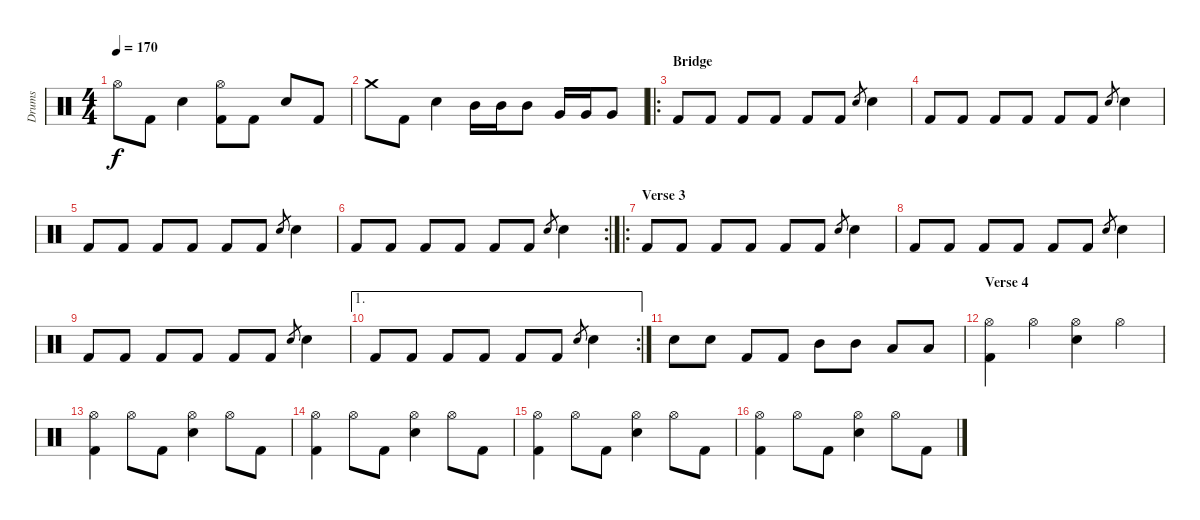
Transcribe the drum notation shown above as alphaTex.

\track ("Drums" "Drums") {instrument percussion}
\staff {score}
\articulation defaults
\ts (4 4)
\tempo 170
\clef neutral
\ks c "Hi-Hat (open)".8{dy f} "Kick (hit) 2".8 "Snare (hit) 2".4
("Hi-Hat (open)" "Kick (hit) 2").8 "Kick (hit) 2".8 "Snare (hit) 2".8 "Kick (hit) 2".8 |
"Crash medium (hit)".8 "Kick (hit) 2".8 "Snare (hit) 2".4 "Mid Tom (hit)".16 "Mid Tom (hit)".16 "Mid Tom (hit)".8 "Very Low Tom (hit)".16 "Very Low Tom (hit)".16 "Very Low Tom (hit)".8 |
\ro
\section ("" "Bridge")
"Kick (hit) 2".8 "Kick (hit) 2".8 "Kick (hit) 2".8 "Kick (hit) 2".8 "Kick (hit) 2".8 "Kick (hit) 2".8 "Snare (hit) 2".8{gr} "Snare (hit) 2".4 |
"Kick (hit) 2".8 "Kick (hit) 2".8 "Kick (hit) 2".8 "Kick (hit) 2".8 "Kick (hit) 2".8 "Kick (hit) 2".8 "Snare (hit) 2".8{gr} "Snare (hit) 2".4 |
"Kick (hit) 2".8 "Kick (hit) 2".8 "Kick (hit) 2".8 "Kick (hit) 2".8 "Kick (hit) 2".8 "Kick (hit) 2".8 "Snare (hit) 2".8{gr} "Snare (hit) 2".4 |
\rc 2 "Kick (hit) 2".8 "Kick (hit) 2".8 "Kick (hit) 2".8 "Kick (hit) 2".8 "Kick (hit) 2".8 "Kick (hit) 2".8 "Snare (hit) 2".8{gr} "Snare (hit) 2".4
|
\ro
\section ("" "Verse 3")
"Kick (hit) 2".8 "Kick (hit) 2".8 "Kick (hit) 2".8 "Kick (hit) 2".8 "Kick (hit) 2".8 "Kick (hit) 2".8 "Snare (hit) 2".8{gr} "Snare (hit) 2".4 |
"Kick (hit) 2".8 "Kick (hit) 2".8 "Kick (hit) 2".8 "Kick (hit) 2".8 "Kick (hit) 2".8 "Kick (hit) 2".8 "Snare (hit) 2".8{gr} "Snare (hit) 2".4 |
"Kick (hit) 2".8 "Kick (hit) 2".8 "Kick (hit) 2".8 "Kick (hit) 2".8 "Kick (hit) 2".8 "Kick (hit) 2".8 "Snare (hit) 2".8{gr} "Snare (hit) 2".4 |
\ae 1
\rc 2 "Kick (hit) 2".8 "Kick (hit) 2".8 "Kick (hit) 2".8 "Kick (hit) 2".8 "Kick (hit) 2".8 "Kick (hit) 2".8 "Snare (hit) 2".8{gr} "Snare (hit) 2".4
|
"Snare (hit) 2".8 "Snare (hit) 2".8 "Kick (hit) 2".8 "Kick (hit) 2".8 "Mid Tom (hit)".8 "Mid Tom (hit)".8 "Low Tom (hit)".8 "Low Tom (hit)".8 |
\section ("" "Verse 4")
("Hi-Hat (open)" "Kick (hit) 2").4 "Hi-Hat (open)".4 ("Hi-Hat (open)" "Snare (hit) 2").4 "Hi-Hat (open)".4 |
("Hi-Hat (open)" "Kick (hit) 2").4 "Hi-Hat (open)".8 "Kick (hit) 2".8 ("Hi-Hat (open)" "Snare (hit) 2").4 "Hi-Hat (open)".8 "Kick (hit) 2".8 |
("Hi-Hat (open)" "Kick (hit) 2").4 "Hi-Hat (open)".8 "Kick (hit) 2".8 ("Hi-Hat (open)" "Snare (hit) 2").4 "Hi-Hat (open)".8 "Kick (hit) 2".8 |
("Hi-Hat (open)" "Kick (hit) 2").4 "Hi-Hat (open)".8 "Kick (hit) 2".8 ("Hi-Hat (open)" "Snare (hit) 2").4 "Hi-Hat (open)".8 "Kick (hit) 2".8 |
("Hi-Hat (open)" "Kick (hit) 2").4 "Hi-Hat (open)".8 "Kick (hit) 2".8 ("Hi-Hat (open)" "Snare (hit) 2").4 "Hi-Hat (open)".8 "Kick (hit) 2".8
